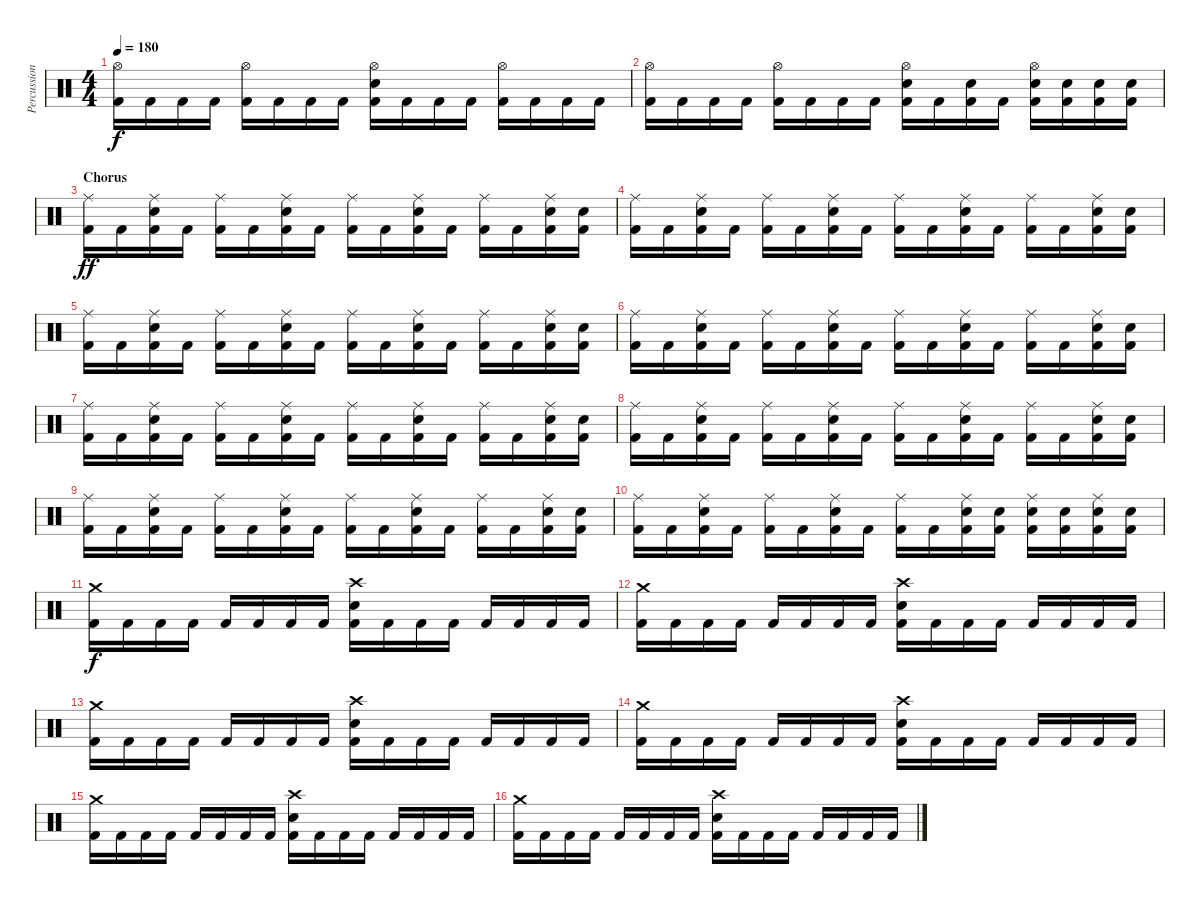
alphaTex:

\track ("Percussions" "Percussion") {instrument percussion}
\staff {score}
\articulation defaults
\ts (4 4)
\tempo 180
\clef neutral
\ks c
("Hi-Hat (open)" "Kick (hit) 2").16{dy f} "Kick (hit) 2".16 "Kick (hit) 2".16 "Kick (hit) 2".16 ("Hi-Hat (open)" "Kick (hit) 2").16 "Kick (hit) 2".16 "Kick (hit) 2".16 "Kick (hit) 2".16 ("Hi-Hat (open)" "Electric Snare (hit)" "Kick (hit) 2").16 "Kick (hit) 2".16 "Kick (hit) 2".16 "Kick (hit) 2".16 ("Hi-Hat (open)" "Kick (hit) 2").16 "Kick (hit) 2".16 "Kick (hit) 2".16 "Kick (hit) 2".16 |
("Hi-Hat (open)" "Kick (hit) 2").16 "Kick (hit) 2".16 "Kick (hit) 2".16 "Kick (hit) 2".16 ("Hi-Hat (open)" "Kick (hit) 2").16 "Kick (hit) 2".16 "Kick (hit) 2".16 "Kick (hit) 2".16 ("Hi-Hat (open)" "Electric Snare (hit)" "Kick (hit) 2").16 "Kick (hit) 2".16 ("Electric Snare (hit)" "Kick (hit) 2").16 "Kick (hit) 2".16 ("Hi-Hat (open)" "Electric Snare (hit)" "Kick (hit) 2").16 ("Electric Snare (hit)" "Kick (hit) 2").16 ("Electric Snare (hit)" "Kick (hit) 2").16 ("Electric Snare (hit)" "Kick (hit) 2").16 |
\section ("" "Chorus")
("Ride (middle)" "Kick (hit) 2").16{dy ff} "Kick (hit) 2".16 ("Ride (middle)" "Electric Snare (hit)" "Kick (hit) 2").16 "Kick (hit) 2".16 ("Ride (middle)" "Kick (hit) 2").16 "Kick (hit) 2".16 ("Ride (middle)" "Electric Snare (hit)" "Kick (hit) 2").16 "Kick (hit) 2".16 ("Ride (middle)" "Kick (hit) 2").16 "Kick (hit) 2".16 ("Ride (middle)" "Electric Snare (hit)" "Kick (hit) 2").16 "Kick (hit) 2".16 ("Ride (middle)" "Kick (hit) 2").16 "Kick (hit) 2".16 ("Ride (middle)" "Electric Snare (hit)" "Kick (hit) 2").16 ("Electric Snare (hit)" "Kick (hit) 2").16 |
("Ride (middle)" "Kick (hit) 2").16 "Kick (hit) 2".16 ("Ride (middle)" "Electric Snare (hit)" "Kick (hit) 2").16 "Kick (hit) 2".16 ("Ride (middle)" "Kick (hit) 2").16 "Kick (hit) 2".16 ("Ride (middle)" "Electric Snare (hit)" "Kick (hit) 2").16 "Kick (hit) 2".16 ("Ride (middle)" "Kick (hit) 2").16 "Kick (hit) 2".16 ("Ride (middle)" "Electric Snare (hit)" "Kick (hit) 2").16 "Kick (hit) 2".16 ("Ride (middle)" "Kick (hit) 2").16 "Kick (hit) 2".16 ("Ride (middle)" "Electric Snare (hit)" "Kick (hit) 2").16 ("Electric Snare (hit)" "Kick (hit) 2").16 |
("Ride (middle)" "Kick (hit) 2").16 "Kick (hit) 2".16 ("Ride (middle)" "Electric Snare (hit)" "Kick (hit) 2").16 "Kick (hit) 2".16 ("Ride (middle)" "Kick (hit) 2").16 "Kick (hit) 2".16 ("Ride (middle)" "Electric Snare (hit)" "Kick (hit) 2").16 "Kick (hit) 2".16 ("Ride (middle)" "Kick (hit) 2").16 "Kick (hit) 2".16 ("Ride (middle)" "Electric Snare (hit)" "Kick (hit) 2").16 "Kick (hit) 2".16 ("Ride (middle)" "Kick (hit) 2").16 "Kick (hit) 2".16 ("Ride (middle)" "Electric Snare (hit)" "Kick (hit) 2").16 ("Electric Snare (hit)" "Kick (hit) 2").16 |
("Ride (middle)" "Kick (hit) 2").16 "Kick (hit) 2".16 ("Ride (middle)" "Electric Snare (hit)" "Kick (hit) 2").16 "Kick (hit) 2".16 ("Ride (middle)" "Kick (hit) 2").16 "Kick (hit) 2".16 ("Ride (middle)" "Electric Snare (hit)" "Kick (hit) 2").16 "Kick (hit) 2".16 ("Ride (middle)" "Kick (hit) 2").16 "Kick (hit) 2".16 ("Ride (middle)" "Electric Snare (hit)" "Kick (hit) 2").16 "Kick (hit) 2".16 ("Ride (middle)" "Kick (hit) 2").16 "Kick (hit) 2".16 ("Ride (middle)" "Electric Snare (hit)" "Kick (hit) 2").16 ("Electric Snare (hit)" "Kick (hit) 2").16 |
("Ride (middle)" "Kick (hit) 2").16 "Kick (hit) 2".16 ("Ride (middle)" "Electric Snare (hit)" "Kick (hit) 2").16 "Kick (hit) 2".16 ("Ride (middle)" "Kick (hit) 2").16 "Kick (hit) 2".16 ("Ride (middle)" "Electric Snare (hit)" "Kick (hit) 2").16 "Kick (hit) 2".16 ("Ride (middle)" "Kick (hit) 2").16 "Kick (hit) 2".16 ("Ride (middle)" "Electric Snare (hit)" "Kick (hit) 2").16 "Kick (hit) 2".16 ("Ride (middle)" "Kick (hit) 2").16 "Kick (hit) 2".16 ("Ride (middle)" "Electric Snare (hit)" "Kick (hit) 2").16 ("Electric Snare (hit)" "Kick (hit) 2").16 |
("Ride (middle)" "Kick (hit) 2").16 "Kick (hit) 2".16 ("Ride (middle)" "Electric Snare (hit)" "Kick (hit) 2").16 "Kick (hit) 2".16 ("Ride (middle)" "Kick (hit) 2").16 "Kick (hit) 2".16 ("Ride (middle)" "Electric Snare (hit)" "Kick (hit) 2").16 "Kick (hit) 2".16 ("Ride (middle)" "Kick (hit) 2").16 "Kick (hit) 2".16 ("Ride (middle)" "Electric Snare (hit)" "Kick (hit) 2").16 "Kick (hit) 2".16 ("Ride (middle)" "Kick (hit) 2").16 "Kick (hit) 2".16 ("Ride (middle)" "Electric Snare (hit)" "Kick (hit) 2").16 ("Electric Snare (hit)" "Kick (hit) 2").16 |
("Ride (middle)" "Kick (hit) 2").16 "Kick (hit) 2".16 ("Ride (middle)" "Electric Snare (hit)" "Kick (hit) 2").16 "Kick (hit) 2".16 ("Ride (middle)" "Kick (hit) 2").16 "Kick (hit) 2".16 ("Ride (middle)" "Electric Snare (hit)" "Kick (hit) 2").16 "Kick (hit) 2".16 ("Ride (middle)" "Kick (hit) 2").16 "Kick (hit) 2".16 ("Ride (middle)" "Electric Snare (hit)" "Kick (hit) 2").16 "Kick (hit) 2".16 ("Ride (middle)" "Kick (hit) 2").16 "Kick (hit) 2".16 ("Ride (middle)" "Electric Snare (hit)" "Kick (hit) 2").16 ("Electric Snare (hit)" "Kick (hit) 2").16 |
("Ride (middle)" "Kick (hit) 2").16 "Kick (hit) 2".16 ("Ride (middle)" "Electric Snare (hit)" "Kick (hit) 2").16 "Kick (hit) 2".16 ("Ride (middle)" "Kick (hit) 2").16 "Kick (hit) 2".16 ("Ride (middle)" "Electric Snare (hit)" "Kick (hit) 2").16 "Kick (hit) 2".16 ("Ride (middle)" "Kick (hit) 2").16 "Kick (hit) 2".16 ("Ride (middle)" "Electric Snare (hit)" "Kick (hit) 2").16 ("Electric Snare (hit)" "Kick (hit) 2").16 ("Ride (middle)" "Electric Snare (hit)" "Kick (hit) 2").16 ("Electric Snare (hit)" "Kick (hit) 2").16 ("Ride (middle)" "Electric Snare (hit)" "Kick (hit) 2").16 ("Electric Snare (hit)" "Kick (hit) 2").16 |
("Crash medium (hit)" "Kick (hit) 2").16{dy f} "Kick (hit) 2".16 "Kick (hit) 2".16 "Kick (hit) 2".16 "Kick (hit) 2".16 "Kick (hit) 2".16 "Kick (hit) 2".16 "Kick (hit) 2".16 ("Crash high (hit)" "Electric Snare (hit)" "Kick (hit) 2").16 "Kick (hit) 2".16 "Kick (hit) 2".16 "Kick (hit) 2".16 "Kick (hit) 2".16 "Kick (hit) 2".16 "Kick (hit) 2".16 "Kick (hit) 2".16 |
("Crash medium (hit)" "Kick (hit) 2").16 "Kick (hit) 2".16 "Kick (hit) 2".16 "Kick (hit) 2".16 "Kick (hit) 2".16 "Kick (hit) 2".16 "Kick (hit) 2".16 "Kick (hit) 2".16 ("Crash high (hit)" "Electric Snare (hit)" "Kick (hit) 2").16 "Kick (hit) 2".16 "Kick (hit) 2".16 "Kick (hit) 2".16 "Kick (hit) 2".16 "Kick (hit) 2".16 "Kick (hit) 2".16 "Kick (hit) 2".16 |
("Crash medium (hit)" "Kick (hit) 2").16 "Kick (hit) 2".16 "Kick (hit) 2".16 "Kick (hit) 2".16 "Kick (hit) 2".16 "Kick (hit) 2".16 "Kick (hit) 2".16 "Kick (hit) 2".16 ("Crash high (hit)" "Electric Snare (hit)" "Kick (hit) 2").16 "Kick (hit) 2".16 "Kick (hit) 2".16 "Kick (hit) 2".16 "Kick (hit) 2".16 "Kick (hit) 2".16 "Kick (hit) 2".16 "Kick (hit) 2".16 |
("Crash medium (hit)" "Kick (hit) 2").16 "Kick (hit) 2".16 "Kick (hit) 2".16 "Kick (hit) 2".16 "Kick (hit) 2".16 "Kick (hit) 2".16 "Kick (hit) 2".16 "Kick (hit) 2".16 ("Crash high (hit)" "Electric Snare (hit)" "Kick (hit) 2").16 "Kick (hit) 2".16 "Kick (hit) 2".16 "Kick (hit) 2".16 "Kick (hit) 2".16 "Kick (hit) 2".16 "Kick (hit) 2".16 "Kick (hit) 2".16 |
("Crash medium (hit)" "Kick (hit) 2").16 "Kick (hit) 2".16 "Kick (hit) 2".16 "Kick (hit) 2".16 "Kick (hit) 2".16 "Kick (hit) 2".16 "Kick (hit) 2".16 "Kick (hit) 2".16 ("Crash high (hit)" "Electric Snare (hit)" "Kick (hit) 2").16 "Kick (hit) 2".16 "Kick (hit) 2".16 "Kick (hit) 2".16 "Kick (hit) 2".16 "Kick (hit) 2".16 "Kick (hit) 2".16 "Kick (hit) 2".16 |
("Crash medium (hit)" "Kick (hit) 2").16 "Kick (hit) 2".16 "Kick (hit) 2".16 "Kick (hit) 2".16 "Kick (hit) 2".16 "Kick (hit) 2".16 "Kick (hit) 2".16 "Kick (hit) 2".16 ("Crash high (hit)" "Electric Snare (hit)" "Kick (hit) 2").16 "Kick (hit) 2".16 "Kick (hit) 2".16 "Kick (hit) 2".16 "Kick (hit) 2".16 "Kick (hit) 2".16 "Kick (hit) 2".16 "Kick (hit) 2".16
